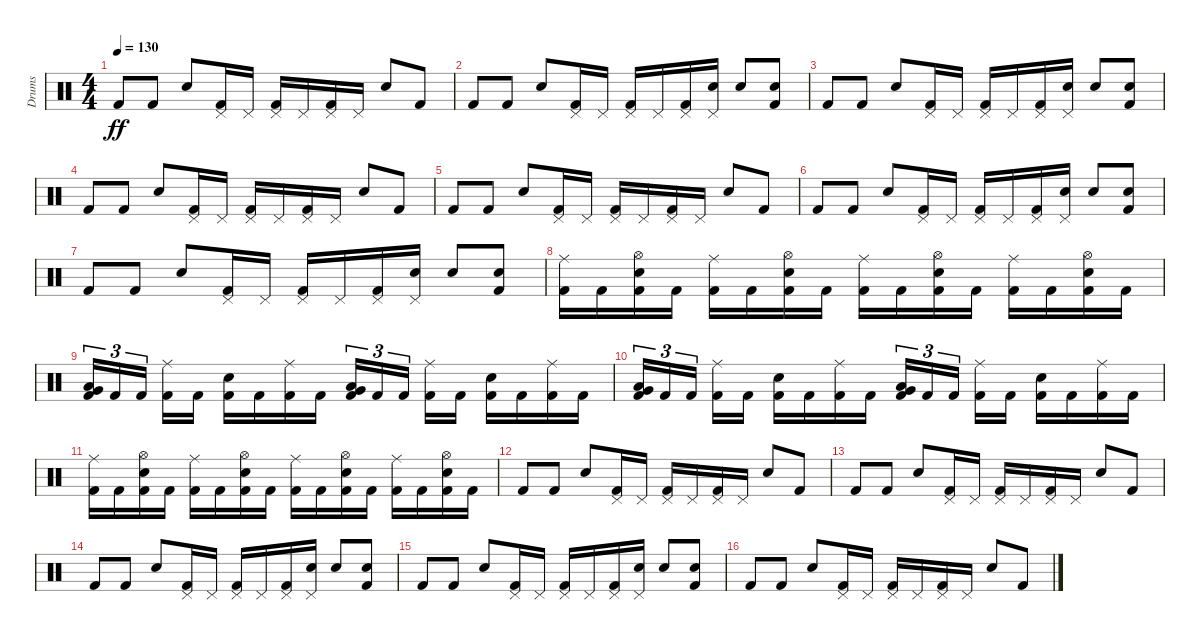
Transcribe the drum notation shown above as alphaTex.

\track ("Drums" "Drums") {instrument percussion}
\staff {score}
\articulation defaults
\ts (4 4)
\tempo 130
\clef neutral
\ks c "Kick (hit) 2".8{dy ff} "Kick (hit) 2".8 "Snare (hit) 2".8
("Pedal Hi-Hat (hit)" "Kick (hit) 2").16 "Pedal Hi-Hat (hit)".16 ("Pedal Hi-Hat (hit)" "Kick (hit) 2").16 "Pedal Hi-Hat (hit)".16 ("Pedal Hi-Hat (hit)" "Kick (hit) 2").16 "Pedal Hi-Hat (hit)".16 "Snare (hit) 2".8 "Kick (hit) 2".8 |
"Kick (hit) 2".8 "Kick (hit) 2".8 "Snare (hit) 2".8 ("Pedal Hi-Hat (hit)" "Kick (hit) 2").16 "Pedal Hi-Hat (hit)".16 ("Pedal Hi-Hat (hit)" "Kick (hit) 2").16 "Pedal Hi-Hat (hit)".16 ("Pedal Hi-Hat (hit)" "Kick (hit) 2").16 ("Pedal Hi-Hat (hit)" "Snare (hit) 2").16 "Snare (hit) 2".8 ("Snare (hit) 2" "Kick (hit) 2").8 |
"Kick (hit) 2".8 "Kick (hit) 2".8 "Snare (hit) 2".8 ("Pedal Hi-Hat (hit)" "Kick (hit) 2").16 "Pedal Hi-Hat (hit)".16 ("Pedal Hi-Hat (hit)" "Kick (hit) 2").16 "Pedal Hi-Hat (hit)".16 ("Pedal Hi-Hat (hit)" "Kick (hit) 2").16 ("Pedal Hi-Hat (hit)" "Snare (hit) 2").16 "Snare (hit) 2".8 ("Snare (hit) 2" "Kick (hit) 2").8 |
"Kick (hit) 2".8 "Kick (hit) 2".8 "Snare (hit) 2".8 ("Pedal Hi-Hat (hit)" "Kick (hit) 2").16 "Pedal Hi-Hat (hit)".16 ("Pedal Hi-Hat (hit)" "Kick (hit) 2").16 "Pedal Hi-Hat (hit)".16 ("Pedal Hi-Hat (hit)" "Kick (hit) 2").16 "Pedal Hi-Hat (hit)".16 "Snare (hit) 2".8 "Kick (hit) 2".8 |
"Kick (hit) 2".8 "Kick (hit) 2".8 "Snare (hit) 2".8 ("Pedal Hi-Hat (hit)" "Kick (hit) 2").16 "Pedal Hi-Hat (hit)".16 ("Pedal Hi-Hat (hit)" "Kick (hit) 2").16 "Pedal Hi-Hat (hit)".16 ("Pedal Hi-Hat (hit)" "Kick (hit) 2").16 "Pedal Hi-Hat (hit)".16 "Snare (hit) 2".8 "Kick (hit) 2".8 |
"Kick (hit) 2".8 "Kick (hit) 2".8 "Snare (hit) 2".8 ("Pedal Hi-Hat (hit)" "Kick (hit) 2").16 "Pedal Hi-Hat (hit)".16 ("Pedal Hi-Hat (hit)" "Kick (hit) 2").16 "Pedal Hi-Hat (hit)".16 ("Pedal Hi-Hat (hit)" "Kick (hit) 2").16 ("Pedal Hi-Hat (hit)" "Snare (hit) 2").16 "Snare (hit) 2".8 ("Snare (hit) 2" "Kick (hit) 2").8 |
"Kick (hit) 2".8 "Kick (hit) 2".8 "Snare (hit) 2".8 ("Pedal Hi-Hat (hit)" "Kick (hit) 2").16 "Pedal Hi-Hat (hit)".16 ("Pedal Hi-Hat (hit)" "Kick (hit) 2").16 "Pedal Hi-Hat (hit)".16 ("Pedal Hi-Hat (hit)" "Kick (hit) 2").16 ("Pedal Hi-Hat (hit)" "Snare (hit) 2").16 "Snare (hit) 2".8 ("Snare (hit) 2" "Kick (hit) 2").8 |
("Ride (middle)" "Kick (hit) 2").16 "Kick (hit) 2".16 ("Hi-Hat (open)" "Snare (hit) 2" "Kick (hit) 2").16 "Kick (hit) 2".16 ("Ride (middle)" "Kick (hit) 2").16 "Kick (hit) 2".16 ("Hi-Hat (open)" "Snare (hit) 2" "Kick (hit) 2").16 "Kick (hit) 2".16 ("Ride (middle)" "Kick (hit) 2").16 "Kick (hit) 2".16 ("Hi-Hat (open)" "Snare (hit) 2" "Kick (hit) 2").16 "Kick (hit) 2".16 ("Ride (middle)" "Kick (hit) 2").16 "Kick (hit) 2".16 ("Hi-Hat (open)" "Snare (hit) 2" "Kick (hit) 2").16 "Kick (hit) 2".16 |
("Low Tom (hit)" "Very Low Tom (hit)" "Kick (hit) 2").16{tu (3 2)} "Kick (hit) 2".16{tu (3 2)} "Kick (hit) 2".16{tu (3 2) beam splitsecondary} ("Ride (middle)" "Kick (hit) 2").16 "Kick (hit) 2".16 ("Snare (hit) 2" "Kick (hit) 2").16 "Kick (hit) 2".16 ("Ride (middle)" "Kick (hit) 2").16 "Kick (hit) 2".16 ("Low Tom (hit)" "Very Low Tom (hit)" "Kick (hit) 2").16{tu (3 2)} "Kick (hit) 2".16{tu (3 2)} "Kick (hit) 2".16{tu (3 2) beam splitsecondary} ("Ride (middle)" "Kick (hit) 2").16 "Kick (hit) 2".16 ("Snare (hit) 2" "Kick (hit) 2").16 "Kick (hit) 2".16 ("Ride (middle)" "Kick (hit) 2").16 "Kick (hit) 2".16 |
("Low Tom (hit)" "Very Low Tom (hit)" "Kick (hit) 2").16{tu (3 2)} "Kick (hit) 2".16{tu (3 2)} "Kick (hit) 2".16{tu (3 2) beam splitsecondary} ("Ride (middle)" "Kick (hit) 2").16 "Kick (hit) 2".16 ("Snare (hit) 2" "Kick (hit) 2").16 "Kick (hit) 2".16 ("Ride (middle)" "Kick (hit) 2").16 "Kick (hit) 2".16 ("Low Tom (hit)" "Very Low Tom (hit)" "Kick (hit) 2").16{tu (3 2)} "Kick (hit) 2".16{tu (3 2)} "Kick (hit) 2".16{tu (3 2) beam splitsecondary} ("Ride (middle)" "Kick (hit) 2").16 "Kick (hit) 2".16 ("Snare (hit) 2" "Kick (hit) 2").16 "Kick (hit) 2".16 ("Ride (middle)" "Kick (hit) 2").16 "Kick (hit) 2".16 |
("Ride (middle)" "Kick (hit) 2").16 "Kick (hit) 2".16 ("Hi-Hat (open)" "Snare (hit) 2" "Kick (hit) 2").16 "Kick (hit) 2".16 ("Ride (middle)" "Kick (hit) 2").16 "Kick (hit) 2".16 ("Hi-Hat (open)" "Snare (hit) 2" "Kick (hit) 2").16 "Kick (hit) 2".16 ("Ride (middle)" "Kick (hit) 2").16 "Kick (hit) 2".16 ("Hi-Hat (open)" "Snare (hit) 2" "Kick (hit) 2").16 "Kick (hit) 2".16 ("Ride (middle)" "Kick (hit) 2").16 "Kick (hit) 2".16 ("Hi-Hat (open)" "Snare (hit) 2" "Kick (hit) 2").16 "Kick (hit) 2".16 |
"Kick (hit) 2".8 "Kick (hit) 2".8 "Snare (hit) 2".8 ("Pedal Hi-Hat (hit)" "Kick (hit) 2").16 "Pedal Hi-Hat (hit)".16 ("Pedal Hi-Hat (hit)" "Kick (hit) 2").16 "Pedal Hi-Hat (hit)".16 ("Pedal Hi-Hat (hit)" "Kick (hit) 2").16 "Pedal Hi-Hat (hit)".16 "Snare (hit) 2".8 "Kick (hit) 2".8 |
"Kick (hit) 2".8 "Kick (hit) 2".8 "Snare (hit) 2".8 ("Pedal Hi-Hat (hit)" "Kick (hit) 2").16 "Pedal Hi-Hat (hit)".16 ("Pedal Hi-Hat (hit)" "Kick (hit) 2").16 "Pedal Hi-Hat (hit)".16 ("Pedal Hi-Hat (hit)" "Kick (hit) 2").16 "Pedal Hi-Hat (hit)".16 "Snare (hit) 2".8 "Kick (hit) 2".8 |
"Kick (hit) 2".8 "Kick (hit) 2".8 "Snare (hit) 2".8 ("Pedal Hi-Hat (hit)" "Kick (hit) 2").16 "Pedal Hi-Hat (hit)".16 ("Pedal Hi-Hat (hit)" "Kick (hit) 2").16 "Pedal Hi-Hat (hit)".16 ("Pedal Hi-Hat (hit)" "Kick (hit) 2").16 ("Pedal Hi-Hat (hit)" "Snare (hit) 2").16 "Snare (hit) 2".8 ("Snare (hit) 2" "Kick (hit) 2").8 |
"Kick (hit) 2".8 "Kick (hit) 2".8 "Snare (hit) 2".8 ("Pedal Hi-Hat (hit)" "Kick (hit) 2").16 "Pedal Hi-Hat (hit)".16 ("Pedal Hi-Hat (hit)" "Kick (hit) 2").16 "Pedal Hi-Hat (hit)".16 ("Pedal Hi-Hat (hit)" "Kick (hit) 2").16 ("Pedal Hi-Hat (hit)" "Snare (hit) 2").16 "Snare (hit) 2".8 ("Snare (hit) 2" "Kick (hit) 2").8 |
"Kick (hit) 2".8 "Kick (hit) 2".8 "Snare (hit) 2".8 ("Pedal Hi-Hat (hit)" "Kick (hit) 2").16 "Pedal Hi-Hat (hit)".16 ("Pedal Hi-Hat (hit)" "Kick (hit) 2").16 "Pedal Hi-Hat (hit)".16 ("Pedal Hi-Hat (hit)" "Kick (hit) 2").16 "Pedal Hi-Hat (hit)".16 "Snare (hit) 2".8 "Kick (hit) 2".8
